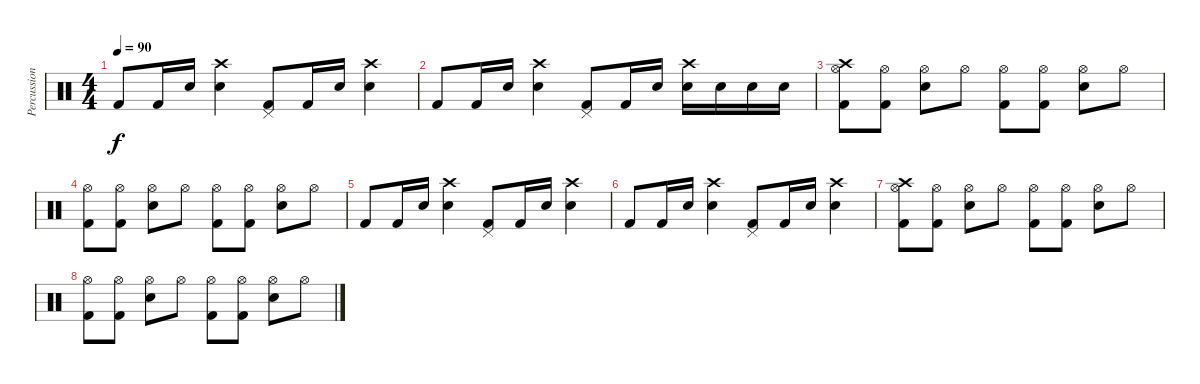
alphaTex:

\track ("Percussion" "Percussion") {instrument percussion}
\staff {score}
\articulation defaults
\ts (4 4)
\tempo 90
\clef neutral
\ks c "Kick (hit) 2".8{dy f} "Kick (hit) 2".16 "Electric Snare (hit)".16
("Crash high (hit)" "Electric Snare (hit)").4 ("Pedal Hi-Hat (hit)" "Kick (hit) 2").8 "Kick (hit) 2".16 "Electric Snare (hit)".16 ("Crash high (hit)" "Electric Snare (hit)").4 |
"Kick (hit) 2".8 "Kick (hit) 2".16 "Electric Snare (hit)".16 ("Crash high (hit)" "Electric Snare (hit)").4 ("Pedal Hi-Hat (hit)" "Kick (hit) 2").8 "Kick (hit) 2".16 "Electric Snare (hit)".16 ("Crash high (hit)" "Electric Snare (hit)").16 "Electric Snare (hit)".16 "Electric Snare (hit)".16 "Electric Snare (hit)".16 |
("Hi-Hat (open)" "Kick (hit) 2" "Crash high (hit)").8 ("Hi-Hat (open)" "Kick (hit) 2").8 ("Hi-Hat (open)" "Electric Snare (hit)").8 "Hi-Hat (open)".8 ("Hi-Hat (open)" "Kick (hit) 2").8 ("Hi-Hat (open)" "Kick (hit) 2").8 ("Hi-Hat (open)" "Electric Snare (hit)").8 "Hi-Hat (open)".8 |
("Hi-Hat (open)" "Kick (hit) 2").8 ("Hi-Hat (open)" "Kick (hit) 2").8 ("Hi-Hat (open)" "Electric Snare (hit)").8 "Hi-Hat (open)".8 ("Hi-Hat (open)" "Kick (hit) 2").8 ("Hi-Hat (open)" "Kick (hit) 2").8 ("Hi-Hat (open)" "Electric Snare (hit)").8 "Hi-Hat (open)".8 |
"Kick (hit) 2".8 "Kick (hit) 2".16 "Electric Snare (hit)".16 ("Crash high (hit)" "Electric Snare (hit)").4 ("Pedal Hi-Hat (hit)" "Kick (hit) 2").8 "Kick (hit) 2".16 "Electric Snare (hit)".16 ("Crash high (hit)" "Electric Snare (hit)").4 |
"Kick (hit) 2".8 "Kick (hit) 2".16 "Electric Snare (hit)".16 ("Crash high (hit)" "Electric Snare (hit)").4 ("Pedal Hi-Hat (hit)" "Kick (hit) 2").8 "Kick (hit) 2".16 "Electric Snare (hit)".16 ("Crash high (hit)" "Electric Snare (hit)").4 |
("Hi-Hat (open)" "Kick (hit) 2" "Crash high (hit)").8 ("Hi-Hat (open)" "Kick (hit) 2").8 ("Hi-Hat (open)" "Electric Snare (hit)").8 "Hi-Hat (open)".8 ("Hi-Hat (open)" "Kick (hit) 2").8 ("Hi-Hat (open)" "Kick (hit) 2").8 ("Hi-Hat (open)" "Electric Snare (hit)").8 "Hi-Hat (open)".8 |
("Hi-Hat (open)" "Kick (hit) 2").8 ("Hi-Hat (open)" "Kick (hit) 2").8 ("Hi-Hat (open)" "Electric Snare (hit)").8 "Hi-Hat (open)".8 ("Hi-Hat (open)" "Kick (hit) 2").8 ("Hi-Hat (open)" "Kick (hit) 2").8 ("Hi-Hat (open)" "Electric Snare (hit)").8 "Hi-Hat (open)".8
